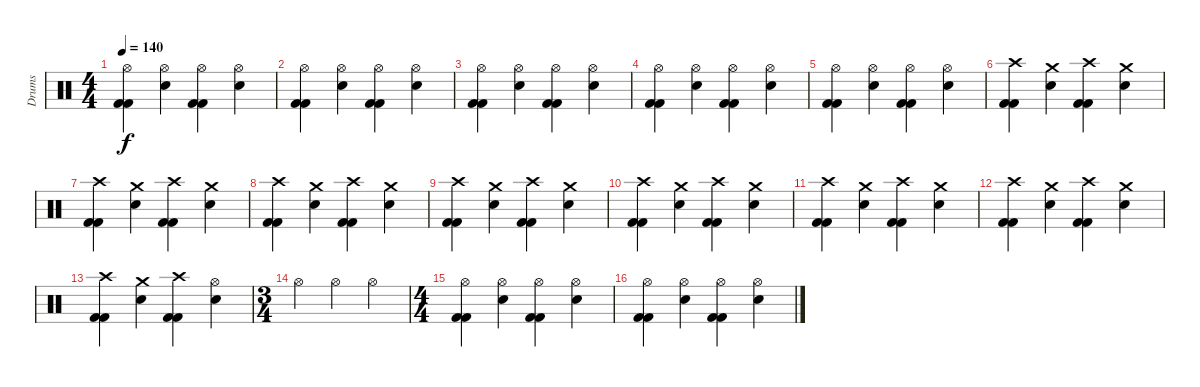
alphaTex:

\track ("Drums" "Drums") {instrument percussion}
\staff {score}
\articulation defaults
\ts (4 4)
\tempo 140
\clef neutral
\ks c
("Hi-Hat (open)" "Kick (hit) 2" "Kick (hit) 2").4{dy f} ("Hi-Hat (open)" "Electric Snare (hit)").4 ("Hi-Hat (open)" "Kick (hit) 2" "Kick (hit) 2").4 ("Hi-Hat (open)" "Electric Snare (hit)").4 |
("Hi-Hat (open)" "Kick (hit) 2" "Kick (hit) 2").4 ("Hi-Hat (open)" "Electric Snare (hit)").4 ("Hi-Hat (open)" "Kick (hit) 2" "Kick (hit) 2").4 ("Hi-Hat (open)" "Electric Snare (hit)").4 |
("Hi-Hat (open)" "Kick (hit) 2" "Kick (hit) 2").4 ("Hi-Hat (open)" "Electric Snare (hit)").4 ("Hi-Hat (open)" "Kick (hit) 2" "Kick (hit) 2").4 ("Hi-Hat (open)" "Electric Snare (hit)").4 |
("Hi-Hat (open)" "Kick (hit) 2" "Kick (hit) 2").4 ("Hi-Hat (open)" "Electric Snare (hit)").4 ("Hi-Hat (open)" "Kick (hit) 2" "Kick (hit) 2").4 ("Hi-Hat (open)" "Electric Snare (hit)").4 |
("Hi-Hat (open)" "Kick (hit) 2" "Kick (hit) 2").4 ("Hi-Hat (open)" "Electric Snare (hit)").4 ("Hi-Hat (open)" "Kick (hit) 2" "Kick (hit) 2").4 ("Hi-Hat (open)" "Electric Snare (hit)").4 |
("Crash high (hit)" "Kick (hit) 2" "Kick (hit) 2").4 ("Crash medium (hit)" "Electric Snare (hit)").4 ("Crash high (hit)" "Kick (hit) 2" "Kick (hit) 2").4 ("Crash medium (hit)" "Electric Snare (hit)").4 |
("Crash high (hit)" "Kick (hit) 2" "Kick (hit) 2").4 ("Crash medium (hit)" "Electric Snare (hit)").4 ("Crash high (hit)" "Kick (hit) 2" "Kick (hit) 2").4 ("Crash medium (hit)" "Electric Snare (hit)").4 |
("Crash high (hit)" "Kick (hit) 2" "Kick (hit) 2").4 ("Crash medium (hit)" "Electric Snare (hit)").4 ("Crash high (hit)" "Kick (hit) 2" "Kick (hit) 2").4 ("Crash medium (hit)" "Electric Snare (hit)").4 |
("Crash high (hit)" "Kick (hit) 2" "Kick (hit) 2").4 ("Crash medium (hit)" "Electric Snare (hit)").4 ("Crash high (hit)" "Kick (hit) 2" "Kick (hit) 2").4 ("Crash medium (hit)" "Electric Snare (hit)").4 |
("Crash high (hit)" "Kick (hit) 2" "Kick (hit) 2").4 ("Crash medium (hit)" "Electric Snare (hit)").4 ("Crash high (hit)" "Kick (hit) 2" "Kick (hit) 2").4 ("Crash medium (hit)" "Electric Snare (hit)").4 |
("Crash high (hit)" "Kick (hit) 2" "Kick (hit) 2").4 ("Crash medium (hit)" "Electric Snare (hit)").4 ("Crash high (hit)" "Kick (hit) 2" "Kick (hit) 2").4 ("Crash medium (hit)" "Electric Snare (hit)").4 |
("Crash high (hit)" "Kick (hit) 2" "Kick (hit) 2").4 ("Crash medium (hit)" "Electric Snare (hit)").4 ("Crash high (hit)" "Kick (hit) 2" "Kick (hit) 2").4 ("Crash medium (hit)" "Electric Snare (hit)").4 |
("Crash high (hit)" "Kick (hit) 2" "Kick (hit) 2").4 ("Crash medium (hit)" "Electric Snare (hit)").4 ("Crash high (hit)" "Kick (hit) 2" "Kick (hit) 2").4 ("Hi-Hat (open)" "Electric Snare (hit)").4 |
\ts (3 4)
"Hi-Hat (open)".4 "Hi-Hat (open)".4 "Hi-Hat (open)".4 |
\ts (4 4)
("Hi-Hat (open)" "Kick (hit) 2" "Kick (hit) 2").4 ("Hi-Hat (open)" "Electric Snare (hit)").4 ("Hi-Hat (open)" "Kick (hit) 2" "Kick (hit) 2").4 ("Hi-Hat (open)" "Electric Snare (hit)").4 |
("Hi-Hat (open)" "Kick (hit) 2" "Kick (hit) 2").4 ("Hi-Hat (open)" "Electric Snare (hit)").4 ("Hi-Hat (open)" "Kick (hit) 2" "Kick (hit) 2").4 ("Hi-Hat (open)" "Electric Snare (hit)").4
